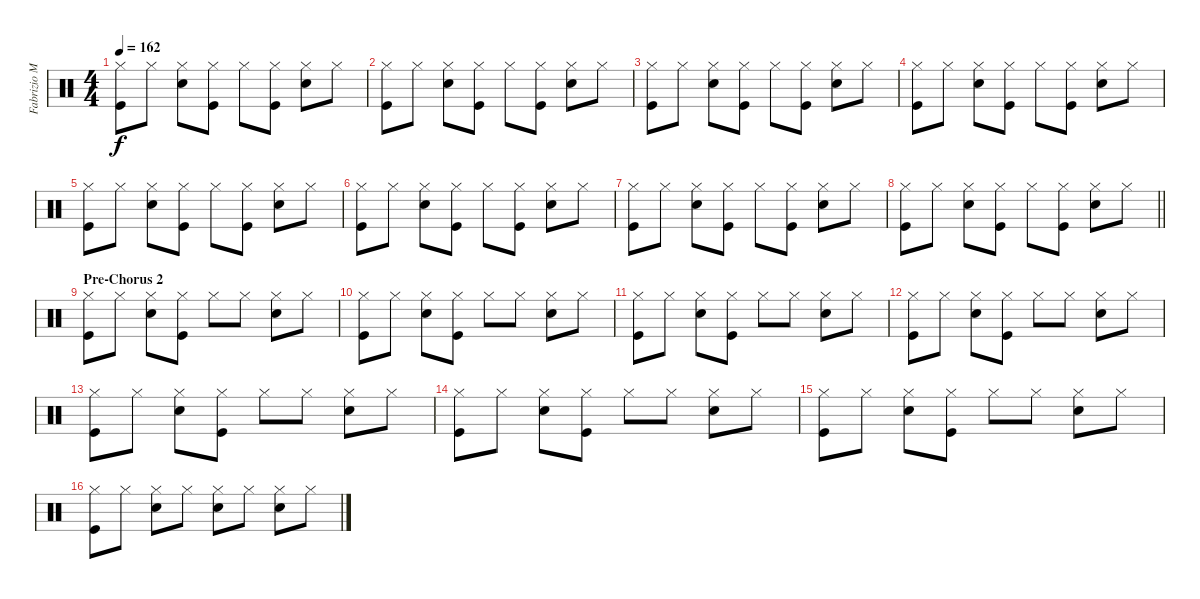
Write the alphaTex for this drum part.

\track ("Fabrizio Moretti" "Fabrizio M") {instrument percussion}
\staff {score}
\articulation defaults
\ts (4 4)
\tempo 162
\clef neutral
\ks c
("Hi-Hat (closed)" "Kick (hit)").8{dy f} "Hi-Hat (closed)".8 ("Hi-Hat (closed)" "Snare (hit) 2").8 ("Hi-Hat (closed)" "Kick (hit)").8 "Hi-Hat (closed)".8 ("Hi-Hat (closed)" "Kick (hit)").8 ("Hi-Hat (closed)" "Snare (hit) 2").8 "Hi-Hat (closed)".8 |
("Hi-Hat (closed)" "Kick (hit)").8 "Hi-Hat (closed)".8 ("Hi-Hat (closed)" "Snare (hit) 2").8 ("Hi-Hat (closed)" "Kick (hit)").8 "Hi-Hat (closed)".8 ("Hi-Hat (closed)" "Kick (hit)").8 ("Hi-Hat (closed)" "Snare (hit) 2").8 "Hi-Hat (closed)".8 |
("Hi-Hat (closed)" "Kick (hit)").8 "Hi-Hat (closed)".8 ("Hi-Hat (closed)" "Snare (hit) 2").8 ("Hi-Hat (closed)" "Kick (hit)").8 "Hi-Hat (closed)".8 ("Hi-Hat (closed)" "Kick (hit)").8 ("Hi-Hat (closed)" "Snare (hit) 2").8 "Hi-Hat (closed)".8 |
("Hi-Hat (closed)" "Kick (hit)").8 "Hi-Hat (closed)".8 ("Hi-Hat (closed)" "Snare (hit) 2").8 ("Hi-Hat (closed)" "Kick (hit)").8 "Hi-Hat (closed)".8 ("Hi-Hat (closed)" "Kick (hit)").8 ("Hi-Hat (closed)" "Snare (hit) 2").8 "Hi-Hat (closed)".8 |
("Hi-Hat (closed)" "Kick (hit)").8 "Hi-Hat (closed)".8 ("Hi-Hat (closed)" "Snare (hit) 2").8 ("Hi-Hat (closed)" "Kick (hit)").8 "Hi-Hat (closed)".8 ("Hi-Hat (closed)" "Kick (hit)").8 ("Hi-Hat (closed)" "Snare (hit) 2").8 "Hi-Hat (closed)".8 |
("Hi-Hat (closed)" "Kick (hit)").8 "Hi-Hat (closed)".8 ("Hi-Hat (closed)" "Snare (hit) 2").8 ("Hi-Hat (closed)" "Kick (hit)").8 "Hi-Hat (closed)".8 ("Hi-Hat (closed)" "Kick (hit)").8 ("Hi-Hat (closed)" "Snare (hit) 2").8 "Hi-Hat (closed)".8 |
("Hi-Hat (closed)" "Kick (hit)").8 "Hi-Hat (closed)".8 ("Hi-Hat (closed)" "Snare (hit) 2").8 ("Hi-Hat (closed)" "Kick (hit)").8 "Hi-Hat (closed)".8 ("Hi-Hat (closed)" "Kick (hit)").8 ("Hi-Hat (closed)" "Snare (hit) 2").8 "Hi-Hat (closed)".8 |
\barLineRight lightlight
("Hi-Hat (closed)" "Kick (hit)").8 "Hi-Hat (closed)".8 ("Hi-Hat (closed)" "Snare (hit) 2").8 ("Hi-Hat (closed)" "Kick (hit)").8 "Hi-Hat (closed)".8 ("Hi-Hat (closed)" "Kick (hit)").8 ("Hi-Hat (closed)" "Snare (hit) 2").8 "Hi-Hat (closed)".8 |
\section ("" "Pre-Chorus 2")
("Hi-Hat (closed)" "Kick (hit)").8 "Hi-Hat (closed)".8 ("Hi-Hat (closed)" "Snare (hit) 2").8 ("Hi-Hat (closed)" "Kick (hit)").8 "Hi-Hat (closed)".8 "Hi-Hat (closed)".8 ("Hi-Hat (closed)" "Snare (hit) 2").8 "Hi-Hat (closed)".8 |
("Hi-Hat (closed)" "Kick (hit)").8 "Hi-Hat (closed)".8 ("Hi-Hat (closed)" "Snare (hit) 2").8 ("Hi-Hat (closed)" "Kick (hit)").8 "Hi-Hat (closed)".8 "Hi-Hat (closed)".8 ("Hi-Hat (closed)" "Snare (hit) 2").8 "Hi-Hat (closed)".8 |
("Hi-Hat (closed)" "Kick (hit)").8 "Hi-Hat (closed)".8 ("Hi-Hat (closed)" "Snare (hit) 2").8 ("Hi-Hat (closed)" "Kick (hit)").8 "Hi-Hat (closed)".8 "Hi-Hat (closed)".8 ("Hi-Hat (closed)" "Snare (hit) 2").8 "Hi-Hat (closed)".8 |
("Hi-Hat (closed)" "Kick (hit)").8 "Hi-Hat (closed)".8 ("Hi-Hat (closed)" "Snare (hit) 2").8 ("Hi-Hat (closed)" "Kick (hit)").8 "Hi-Hat (closed)".8 "Hi-Hat (closed)".8 ("Hi-Hat (closed)" "Snare (hit) 2").8 "Hi-Hat (closed)".8 |
("Hi-Hat (closed)" "Kick (hit)").8 "Hi-Hat (closed)".8 ("Hi-Hat (closed)" "Snare (hit) 2").8 ("Hi-Hat (closed)" "Kick (hit)").8 "Hi-Hat (closed)".8 "Hi-Hat (closed)".8 ("Hi-Hat (closed)" "Snare (hit) 2").8 "Hi-Hat (closed)".8 |
("Hi-Hat (closed)" "Kick (hit)").8 "Hi-Hat (closed)".8 ("Hi-Hat (closed)" "Snare (hit) 2").8 ("Hi-Hat (closed)" "Kick (hit)").8 "Hi-Hat (closed)".8 "Hi-Hat (closed)".8 ("Hi-Hat (closed)" "Snare (hit) 2").8 "Hi-Hat (closed)".8 |
("Hi-Hat (closed)" "Kick (hit)").8 "Hi-Hat (closed)".8 ("Hi-Hat (closed)" "Snare (hit) 2").8 ("Hi-Hat (closed)" "Kick (hit)").8 "Hi-Hat (closed)".8 "Hi-Hat (closed)".8 ("Hi-Hat (closed)" "Snare (hit) 2").8 "Hi-Hat (closed)".8 |
("Hi-Hat (closed)" "Kick (hit)").8 "Hi-Hat (closed)".8 ("Hi-Hat (closed)" "Snare (hit) 2").8 "Hi-Hat (closed)".8 ("Hi-Hat (closed)" "Snare (hit) 2").8 "Hi-Hat (closed)".8 ("Hi-Hat (closed)" "Snare (hit) 2").8 "Hi-Hat (closed)".8
